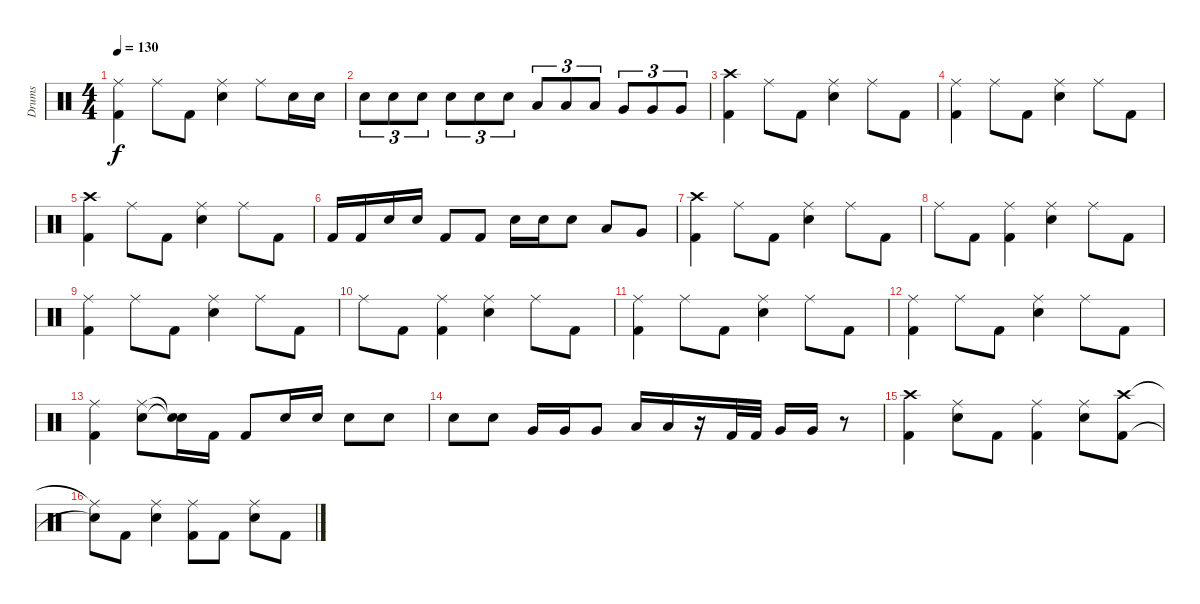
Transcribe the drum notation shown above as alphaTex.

\track ("Drums" "Drums") {instrument percussion}
\staff {score}
\articulation defaults
\ts (4 4)
\tempo 130
\clef neutral
\ks c
("Ride (middle)" "Kick (hit) 2").4{dy f} "Ride (middle)".8 "Kick (hit) 2".8 ("Ride (middle)" "Electric Snare (hit)").4 "Ride (middle)".8 "Electric Snare (hit)".16 "Electric Snare (hit)".16 |
"Electric Snare (hit)".8{tu (3 2)} "Electric Snare (hit)".8{tu (3 2)} "Electric Snare (hit)".8{tu (3 2)} "Electric Snare (hit)".8{tu (3 2)} "Electric Snare (hit)".8{tu (3 2)} "Electric Snare (hit)".8{tu (3 2)} "Low Tom (hit)".8{tu (3 2)} "Low Tom (hit)".8{tu (3 2)} "Low Tom (hit)".8{tu (3 2)} "Very Low Tom (hit)".8{tu (3 2)} "Very Low Tom (hit)".8{tu (3 2)} "Very Low Tom (hit)".8{tu (3 2)} |
("Crash high (hit)" "Kick (hit) 2").4 "Ride (middle)".8 "Kick (hit) 2".8 ("Ride (middle)" "Electric Snare (hit)").4 "Ride (middle)".8 "Kick (hit) 2".8 |
("Ride (middle)" "Kick (hit) 2").4 "Ride (middle)".8 "Kick (hit) 2".8 ("Ride (middle)" "Electric Snare (hit)").4 "Ride (middle)".8 "Kick (hit) 2".8 |
("Crash high (hit)" "Kick (hit) 2").4 "Ride (middle)".8 "Kick (hit) 2".8 ("Ride (middle)" "Electric Snare (hit)").4 "Ride (middle)".8 "Kick (hit) 2".8 |
"Kick (hit) 2".16 "Kick (hit) 2".16 "Electric Snare (hit)".16 "Electric Snare (hit)".16 "Kick (hit) 2".8 "Kick (hit) 2".8 "Electric Snare (hit)".16 "Electric Snare (hit)".16 "Electric Snare (hit)".8 "Low Tom (hit)".8 "Very Low Tom (hit)".8 |
("Crash high (hit)" "Kick (hit) 2").4 "Ride (middle)".8 "Kick (hit) 2".8 ("Ride (middle)" "Electric Snare (hit)").4 "Ride (middle)".8 "Kick (hit) 2".8 |
"Ride (middle)".8 "Kick (hit) 2".8 ("Ride (middle)" "Kick (hit) 2").4 ("Ride (middle)" "Electric Snare (hit)").4 "Ride (middle)".8 "Kick (hit) 2".8 |
("Ride (middle)" "Kick (hit) 2").4 "Ride (middle)".8 "Kick (hit) 2".8 ("Ride (middle)" "Electric Snare (hit)").4 "Ride (middle)".8 "Kick (hit) 2".8 |
"Ride (middle)".8 "Kick (hit) 2".8 ("Ride (middle)" "Kick (hit) 2").4 ("Ride (middle)" "Electric Snare (hit)").4 "Ride (middle)".8 "Kick (hit) 2".8 |
("Ride (middle)" "Kick (hit) 2").4 "Ride (middle)".8 "Kick (hit) 2".8 ("Ride (middle)" "Electric Snare (hit)").4 "Ride (middle)".8 "Kick (hit) 2".8 |
("Ride (middle)" "Kick (hit) 2").4 "Ride (middle)".8 "Kick (hit) 2".8 ("Ride (middle)" "Electric Snare (hit)").4 "Ride (middle)".8 "Kick (hit) 2".8 |
("Ride (middle)" "Kick (hit) 2").4 ("Ride (middle)" "Electric Snare (hit)").8 ("Snare (hit)"{t} "Snare (hit)"{t}).16 "Kick (hit) 2".16 "Kick (hit) 2".8 "Electric Snare (hit)".16 "Electric Snare (hit)".16 "Electric Snare (hit)".8 "Electric Snare (hit)".8 |
"Electric Snare (hit)".8 "Electric Snare (hit)".8 "Very Low Tom (hit)".16 "Very Low Tom (hit)".16 "Very Low Tom (hit)".8 "Low Floor Tom (hit)".16 "Low Floor Tom (hit)".16 r.16 "Kick (hit) 2".32 "Kick (hit) 2".32 "Very Low Tom (hit)".16 "Very Low Tom (hit)".16 r.8 |
("Crash high (hit)" "Kick (hit) 2").4 ("Ride (middle)" "Electric Snare (hit)").8 "Kick (hit) 2".8 ("Ride (middle)" "Kick (hit) 2").4 ("Ride (middle)" "Electric Snare (hit)").8 ("Crash high (hit)" "Kick (hit) 2").8 |
("Ride (middle)"{t} "Snare (hit)"{t}).8 "Kick (hit) 2".8 ("Ride (middle)" "Electric Snare (hit)").4 ("Ride (middle)" "Kick (hit) 2").8 "Kick (hit) 2".8 ("Ride (middle)" "Electric Snare (hit)").8 "Kick (hit) 2".8
